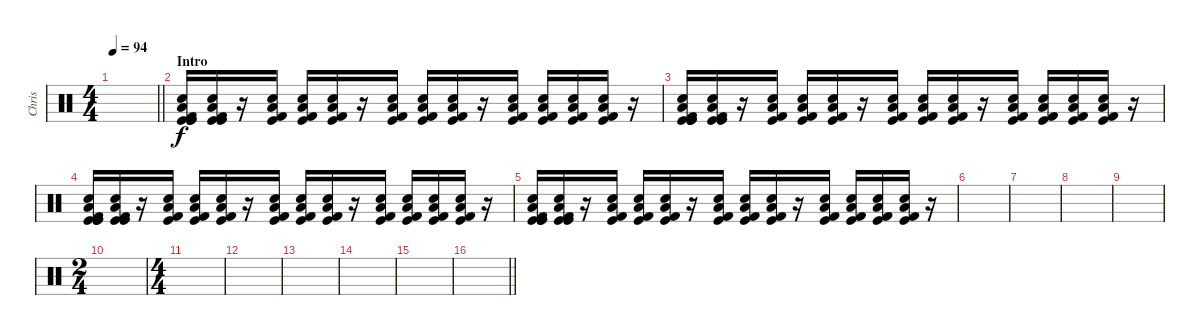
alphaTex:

\track ("Chris" "Chris") {instrument percussion}
\staff {score}
\articulation defaults
\ts (4 4)
\tempo 94
\clef neutral
\barLineRight lightlight
\ks c
|
\section ("" "Intro")
("Kick (hit)" "Kick (hit)" "Kick (hit)" "Low Floor Tom (hit)" "Electric Snare (hit)" "Kick (hit) 2").16 ("Kick (hit)" "Kick (hit)" "Low Floor Tom (hit)" "Electric Snare (hit)" "Kick (hit) 2").16 r.16 ("Kick (hit)" "Low Floor Tom (hit)" "Electric Snare (hit)" "Kick (hit) 2").16 ("Kick (hit)" "Low Floor Tom (hit)" "Electric Snare (hit)" "Kick (hit) 2").16 ("Kick (hit)" "Low Floor Tom (hit)" "Electric Snare (hit)" "Kick (hit) 2").16 r.16 ("Kick (hit)" "Low Floor Tom (hit)" "Electric Snare (hit)" "Kick (hit) 2").16 ("Kick (hit)" "Low Floor Tom (hit)" "Electric Snare (hit)" "Kick (hit) 2").16 ("Kick (hit)" "Low Floor Tom (hit)" "Electric Snare (hit)" "Kick (hit) 2").16 r.16 ("Kick (hit)" "Low Floor Tom (hit)" "Electric Snare (hit)" "Kick (hit) 2").16 ("Kick (hit)" "Low Floor Tom (hit)" "Electric Snare (hit)" "Kick (hit) 2").16 ("Kick (hit)" "Low Floor Tom (hit)" "Electric Snare (hit)" "Kick (hit) 2").16 ("Kick (hit)" "Low Floor Tom (hit)" "Electric Snare (hit)" "Kick (hit) 2").16 r.16 |
("Kick (hit)" "Kick (hit)" "Kick (hit)" "Low Floor Tom (hit)" "Electric Snare (hit)" "Kick (hit) 2").16 ("Kick (hit)" "Kick (hit)" "Low Floor Tom (hit)" "Electric Snare (hit)" "Kick (hit) 2").16 r.16 ("Kick (hit)" "Low Floor Tom (hit)" "Electric Snare (hit)" "Kick (hit) 2").16 ("Kick (hit)" "Low Floor Tom (hit)" "Electric Snare (hit)" "Kick (hit) 2").16 ("Kick (hit)" "Low Floor Tom (hit)" "Electric Snare (hit)" "Kick (hit) 2").16 r.16 ("Kick (hit)" "Low Floor Tom (hit)" "Electric Snare (hit)" "Kick (hit) 2").16 ("Kick (hit)" "Low Floor Tom (hit)" "Electric Snare (hit)" "Kick (hit) 2").16 ("Kick (hit)" "Low Floor Tom (hit)" "Electric Snare (hit)" "Kick (hit) 2").16 r.16 ("Kick (hit)" "Low Floor Tom (hit)" "Electric Snare (hit)" "Kick (hit) 2").16 ("Kick (hit)" "Low Floor Tom (hit)" "Electric Snare (hit)" "Kick (hit) 2").16 ("Kick (hit)" "Low Floor Tom (hit)" "Electric Snare (hit)" "Kick (hit) 2").16 ("Kick (hit)" "Low Floor Tom (hit)" "Electric Snare (hit)" "Kick (hit) 2").16 r.16 |
("Kick (hit)" "Kick (hit)" "Kick (hit)" "Low Floor Tom (hit)" "Electric Snare (hit)" "Kick (hit) 2").16 ("Kick (hit)" "Kick (hit)" "Low Floor Tom (hit)" "Electric Snare (hit)" "Kick (hit) 2").16 r.16 ("Kick (hit)" "Low Floor Tom (hit)" "Electric Snare (hit)" "Kick (hit) 2").16 ("Kick (hit)" "Low Floor Tom (hit)" "Electric Snare (hit)" "Kick (hit) 2").16 ("Kick (hit)" "Low Floor Tom (hit)" "Electric Snare (hit)" "Kick (hit) 2").16 r.16 ("Kick (hit)" "Low Floor Tom (hit)" "Electric Snare (hit)" "Kick (hit) 2").16 ("Kick (hit)" "Low Floor Tom (hit)" "Electric Snare (hit)" "Kick (hit) 2").16 ("Kick (hit)" "Low Floor Tom (hit)" "Electric Snare (hit)" "Kick (hit) 2").16 r.16 ("Kick (hit)" "Low Floor Tom (hit)" "Electric Snare (hit)" "Kick (hit) 2").16 ("Kick (hit)" "Low Floor Tom (hit)" "Electric Snare (hit)" "Kick (hit) 2").16 ("Kick (hit)" "Low Floor Tom (hit)" "Electric Snare (hit)" "Kick (hit) 2").16 ("Kick (hit)" "Low Floor Tom (hit)" "Electric Snare (hit)" "Kick (hit) 2").16 r.16 |
("Kick (hit)" "Kick (hit)" "Kick (hit)" "Low Floor Tom (hit)" "Electric Snare (hit)" "Kick (hit) 2").16 ("Kick (hit)" "Kick (hit)" "Low Floor Tom (hit)" "Electric Snare (hit)" "Kick (hit) 2").16 r.16 ("Kick (hit)" "Low Floor Tom (hit)" "Electric Snare (hit)" "Kick (hit) 2").16 ("Kick (hit)" "Low Floor Tom (hit)" "Electric Snare (hit)" "Kick (hit) 2").16 ("Kick (hit)" "Low Floor Tom (hit)" "Electric Snare (hit)" "Kick (hit) 2").16 r.16 ("Kick (hit)" "Low Floor Tom (hit)" "Electric Snare (hit)" "Kick (hit) 2").16 ("Kick (hit)" "Low Floor Tom (hit)" "Electric Snare (hit)" "Kick (hit) 2").16 ("Kick (hit)" "Low Floor Tom (hit)" "Electric Snare (hit)" "Kick (hit) 2").16 r.16 ("Kick (hit)" "Low Floor Tom (hit)" "Electric Snare (hit)" "Kick (hit) 2").16 ("Kick (hit)" "Low Floor Tom (hit)" "Electric Snare (hit)" "Kick (hit) 2").16 ("Kick (hit)" "Low Floor Tom (hit)" "Electric Snare (hit)" "Kick (hit) 2").16 ("Kick (hit)" "Low Floor Tom (hit)" "Electric Snare (hit)" "Kick (hit) 2").16 r.16 |
|
|
|
|
\ts (2 4)
|
\ts (4 4)
|
|
|
|
|
\barLineRight lightlight
